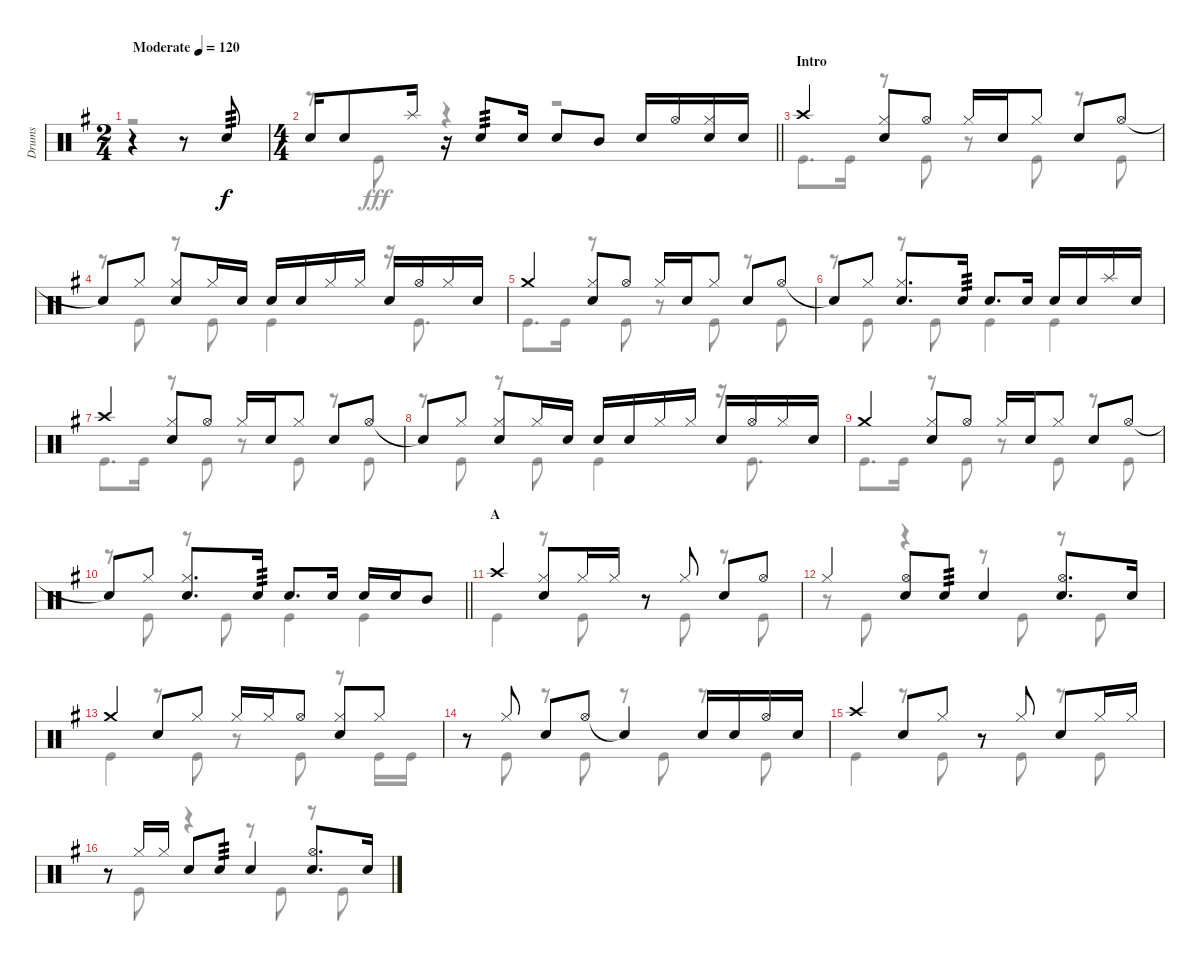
\track ("Drums" "Drums") {instrument percussion}
\staff {score}
\articulation defaults
\voice
\ts (2 4)
\tempo (120 "Moderate")
\clef neutral
\ks g
r.4{dy f} r.8 "Snare (hit) 2".8{tp 3} |
\ts (4 4)
\barLineRight lightlight "Snare (hit) 2".16 "Snare (hit) 2".8 "Splash (hit)".16
r.16 "Snare (hit) 2".8{tp 3} "Snare (hit) 2".16 "Snare (hit) 2".8 "Mid Tom (hit)".8 "Snare (hit) 2".16 "Hi-Hat (open)".16 ("Hi-Hat (closed)" "Snare (hit) 2").16 "Snare (hit) 2".16 |
\section ("" "Intro")
"Crash high (hit)".4 ("Hi-Hat (closed)" "Snare (hit) 2").8 "Hi-Hat (open)".8 "Hi-Hat (closed)".16 "Snare (hit) 2".16 "Hi-Hat (closed)".8 "Snare (hit) 2".8 "Hi-Hat (open)".8 |
"Snare (hit)"{t}.8 "Hi-Hat (closed)".8 ("Hi-Hat (closed)" "Snare (hit) 2").8 "Hi-Hat (closed)".16 "Snare (hit) 2".16 "Snare (hit) 2".16 "Snare (hit) 2".16 "Hi-Hat (closed)".16 "Hi-Hat (closed)".16 "Snare (hit) 2".16 "Hi-Hat (open)".16 "Hi-Hat (closed)".16 "Snare (hit) 2".16 |
"Crash medium (hit)".4 ("Hi-Hat (closed)" "Snare (hit) 2").8 "Hi-Hat (open)".8 "Hi-Hat (closed)".16 "Snare (hit) 2".16 "Hi-Hat (closed)".8 "Snare (hit) 2".8 "Hi-Hat (open)".8 |
"Snare (hit)"{t}.8 "Hi-Hat (closed)".8 ("Hi-Hat (closed)" "Snare (hit) 2").8{d} "Snare (hit) 2".16{tp 3} "Snare (hit) 2".8{d} "Snare (hit) 2".16 "Snare (hit) 2".16 "Snare (hit) 2".16 "Splash (hit)".16 "Snare (hit) 2".16 |
"Crash high (hit)".4 ("Hi-Hat (closed)" "Snare (hit) 2").8 "Hi-Hat (open)".8 "Hi-Hat (closed)".16 "Snare (hit) 2".16 "Hi-Hat (closed)".8 "Snare (hit) 2".8 "Hi-Hat (open)".8 |
"Snare (hit)"{t}.8 "Hi-Hat (closed)".8 ("Hi-Hat (closed)" "Snare (hit) 2").8 "Hi-Hat (closed)".16 "Snare (hit) 2".16 "Snare (hit) 2".16 "Snare (hit) 2".16 "Hi-Hat (closed)".16 "Hi-Hat (closed)".16 "Snare (hit) 2".16 "Hi-Hat (open)".16 "Hi-Hat (closed)".16 "Snare (hit) 2".16 |
"Crash medium (hit)".4 ("Hi-Hat (closed)" "Snare (hit) 2").8 "Hi-Hat (open)".8 "Hi-Hat (closed)".16 "Snare (hit) 2".16 "Hi-Hat (closed)".8 "Snare (hit) 2".8 "Hi-Hat (open)".8 |
\barLineRight lightlight "Snare (hit)"{t}.8 "Hi-Hat (closed)".8
("Hi-Hat (closed)" "Snare (hit) 2").8{d} "Snare (hit) 2".16{tp 3} "Snare (hit) 2".8{d} "Snare (hit) 2".16 "Snare (hit) 2".16 "Snare (hit) 2".16 "Mid Tom (hit)".8 |
\section ("" "A")
"Crash high (hit)".4 ("Hi-Hat (closed)" "Snare (hit) 2").8 "Hi-Hat (closed)".16 "Hi-Hat (closed)".16 r.8 "Hi-Hat (closed)".8 "Snare (hit) 2".8 "Hi-Hat (open)".8 |
"Hi-Hat (closed)".4 ("Hi-Hat (open)" "Snare (hit) 2").8 "Snare (hit) 2".8{tp 3} "Snare (hit) 2".4 ("Hi-Hat (open)" "Snare (hit) 2").8{d} "Snare (hit) 2".16 |
"Crash medium (hit)".4 "Snare (hit) 2".8 "Hi-Hat (closed)".8 "Hi-Hat (closed)".16 "Hi-Hat (closed)".16 "Hi-Hat (open)".8 ("Hi-Hat (closed)" "Snare (hit) 2").8 "Hi-Hat (closed)".8 |
r.8 "Hi-Hat (closed)".8 "Snare (hit) 2".8 "Hi-Hat (open)".8 "Snare (hit)"{t}.4 "Snare (hit) 2".16 "Snare (hit) 2".16 "Hi-Hat (open)".16 "Snare (hit) 2".16 |
"Crash high (hit)".4 "Snare (hit) 2".8 "Hi-Hat (closed)".8 r.8 "Hi-Hat (closed)".8 "Snare (hit) 2".8 "Hi-Hat (closed)".16 "Hi-Hat (closed)".16 |
r.8 "Hi-Hat (closed)".16 "Hi-Hat (closed)".16 "Snare (hit) 2".8 "Snare (hit) 2".8{tp 3} "Snare (hit) 2".4 ("Hi-Hat (open)" "Snare (hit) 2").8{d} "Snare (hit) 2".16
\voice
\clef neutral
\ottava regular
\simile none
\ks g
r.2{dy fff} |
\barLineRight lightlight
r.8 "Kick (hit)".8 r.4 r.2 |
"Kick (hit)".8{d} "Kick (hit)".16 r.8 "Kick (hit)".8 r.8 "Kick (hit)".8 r.8 "Kick (hit)".8 |
r.8 "Kick (hit)".8 r.8 "Kick (hit)".8 "Kick (hit)".4 r.16 "Kick (hit)".8{d} |
"Kick (hit)".8{d} "Kick (hit)".16 r.8 "Kick (hit)".8 r.8 "Kick (hit)".8 r.8 "Kick (hit)".8 |
r.8 "Kick (hit)".8 r.8 "Kick (hit)".8 "Kick (hit)".4 "Kick (hit)".4 |
"Kick (hit)".8{d} "Kick (hit)".16 r.8 "Kick (hit)".8 r.8 "Kick (hit)".8 r.8 "Kick (hit)".8 |
r.8 "Kick (hit)".8 r.8 "Kick (hit)".8 "Kick (hit)".4 r.16 "Kick (hit)".8{d} |
"Kick (hit)".8{d} "Kick (hit)".16 r.8 "Kick (hit)".8 r.8 "Kick (hit)".8 r.8 "Kick (hit)".8 |
\barLineRight lightlight
r.8 "Kick (hit)".8 r.8 "Kick (hit)".8 "Kick (hit)".4 "Kick (hit)".4 |
"Kick (hit)".4 r.8 "Kick (hit)".8 r.8 "Kick (hit)".8 r.8 "Kick (hit)".8 |
r.8 "Kick (hit)".8 r.4 r.8 "Kick (hit)".8 r.8 "Kick (hit)".8 |
"Kick (hit)".4 r.8 "Kick (hit)".8 r.8 "Kick (hit)".8 r.8 "Kick (hit)".16 "Kick (hit)".16 |
r.8 "Kick (hit)".8 r.8 "Kick (hit)".8 r.8 "Kick (hit)".8 r.8 "Kick (hit)".8 |
"Kick (hit)".4 r.8 "Kick (hit)".8 r.8 "Kick (hit)".8 r.8 "Kick (hit)".8 |
r.8 "Kick (hit)".8 r.4 r.8 "Kick (hit)".8 r.8 "Kick (hit)".8
